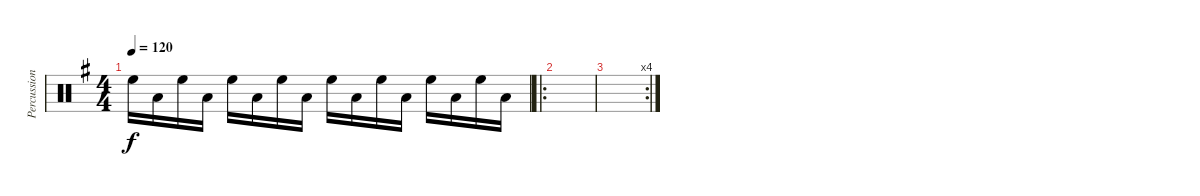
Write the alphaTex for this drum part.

\track ("Percussion 2" "Percussion") {instrument percussion}
\staff {score}
\articulation defaults
\ts (4 4)
\tempo 120
\clef neutral
\ks eminor "High Floor Tom (hit)".16{dy f} "Low Floor Tom (hit)".16 "High Floor Tom (hit)".16 "Low Floor Tom (hit)".16 "High Floor Tom (hit)".16 "Low Floor Tom (hit)".16 "High Floor Tom (hit)".16 "Low Floor Tom (hit)".16 "High Floor Tom (hit)".16 "Low Floor Tom (hit)".16 "High Floor Tom (hit)".16 "Low Floor Tom (hit)".16 "High Floor Tom (hit)".16 "Low Floor Tom (hit)".16 "High Floor Tom (hit)".16 "Low Floor Tom (hit)".16
|
\ro
|
\rc 4
